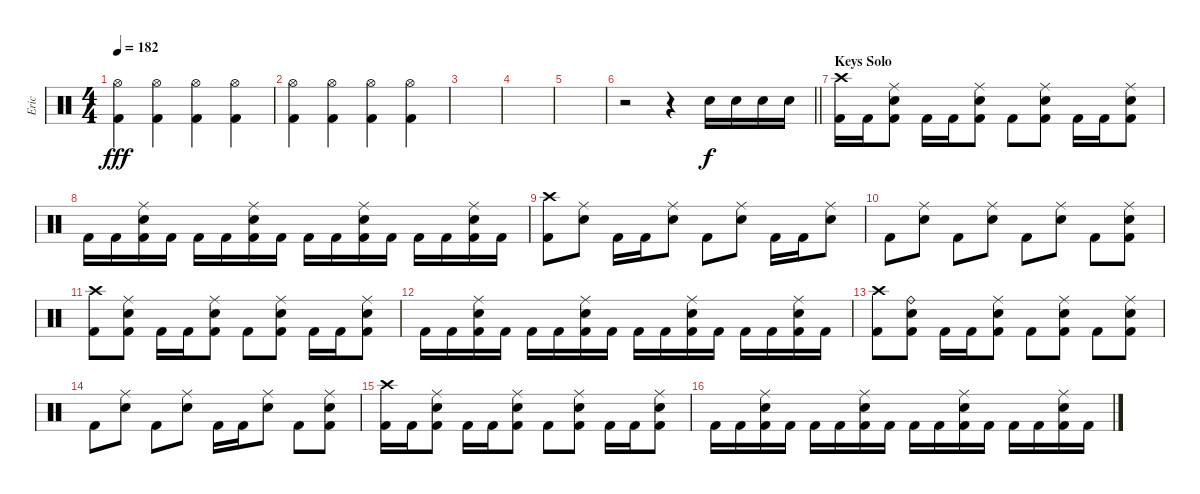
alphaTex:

\track ("Eric" "Eric") {instrument percussion}
\staff {score}
\articulation defaults
\ts (4 4)
\tempo 182
\clef neutral
\ks c
("Hi-Hat (open)" "Kick (hit) 2").4{dy fff} ("Hi-Hat (open)" "Kick (hit) 2").4 ("Hi-Hat (open)" "Kick (hit) 2").4 ("Hi-Hat (open)" "Kick (hit) 2").4 |
("Hi-Hat (open)" "Kick (hit) 2").4 ("Hi-Hat (open)" "Kick (hit) 2").4 ("Hi-Hat (open)" "Kick (hit) 2").4 ("Hi-Hat (open)" "Kick (hit) 2").4 |
|
|
|
\barLineRight lightlight
r.2 r.4 "Snare (hit) 2".16{dy f} "Snare (hit) 2".16 "Snare (hit) 2".16 "Snare (hit) 2".16 |
\section ("" "Keys Solo")
("Crash high (hit)" "Kick (hit) 2").16 "Kick (hit) 2".16 ("Ride (middle)" "Snare (hit) 2" "Kick (hit) 2").8 "Kick (hit) 2".16 "Kick (hit) 2".16 ("Ride (middle)" "Snare (hit) 2" "Kick (hit) 2").8 "Kick (hit) 2".8 ("Ride (middle)" "Snare (hit) 2" "Kick (hit) 2").8 "Kick (hit) 2".16 "Kick (hit) 2".16 ("Ride (middle)" "Snare (hit) 2" "Kick (hit) 2").8 |
"Kick (hit) 2".16 "Kick (hit) 2".16 ("Ride (middle)" "Snare (hit) 2" "Kick (hit) 2").16 "Kick (hit) 2".16 "Kick (hit) 2".16 "Kick (hit) 2".16 ("Ride (middle)" "Snare (hit) 2" "Kick (hit) 2").16 "Kick (hit) 2".16 "Kick (hit) 2".16 "Kick (hit) 2".16 ("Ride (middle)" "Snare (hit) 2" "Kick (hit) 2").16 "Kick (hit) 2".16 "Kick (hit) 2".16 "Kick (hit) 2".16 ("Ride (middle)" "Snare (hit) 2" "Kick (hit) 2").16 "Kick (hit) 2".16 |
("Crash high (hit)" "Kick (hit) 2").8 ("Ride (middle)" "Snare (hit) 2").8 "Kick (hit) 2".16 "Kick (hit) 2".16 ("Ride (middle)" "Snare (hit) 2").8 "Kick (hit) 2".8 ("Ride (middle)" "Snare (hit) 2").8 "Kick (hit) 2".16 "Kick (hit) 2".16 ("Ride (middle)" "Snare (hit) 2").8 |
"Kick (hit) 2".8 ("Ride (middle)" "Snare (hit) 2").8 "Kick (hit) 2".8 ("Ride (middle)" "Snare (hit) 2").8 "Kick (hit) 2".8 ("Ride (middle)" "Snare (hit) 2").8 "Kick (hit) 2".8 ("Ride (middle)" "Snare (hit) 2" "Kick (hit) 2").8 |
("Crash high (hit)" "Kick (hit) 2").8 ("Ride (middle)" "Snare (hit) 2" "Kick (hit) 2").8 "Kick (hit) 2".16 "Kick (hit) 2".16 ("Ride (middle)" "Snare (hit) 2" "Kick (hit) 2").8 "Kick (hit) 2".8 ("Ride (middle)" "Snare (hit) 2" "Kick (hit) 2").8 "Kick (hit) 2".16 "Kick (hit) 2".16 ("Ride (middle)" "Snare (hit) 2" "Kick (hit) 2").8 |
"Kick (hit) 2".16 "Kick (hit) 2".16 ("Ride (middle)" "Snare (hit) 2" "Kick (hit) 2").16 "Kick (hit) 2".16 "Kick (hit) 2".16 "Kick (hit) 2".16 ("Ride (middle)" "Snare (hit) 2" "Kick (hit) 2").16 "Kick (hit) 2".16 "Kick (hit) 2".16 "Kick (hit) 2".16 ("Ride (middle)" "Snare (hit) 2" "Kick (hit) 2").16 "Kick (hit) 2".16 "Kick (hit) 2".16 "Kick (hit) 2".16 ("Ride (middle)" "Snare (hit) 2" "Kick (hit) 2").16 "Kick (hit) 2".16 |
("Crash high (hit)" "Kick (hit) 2").8 ("Ride (bell)" "Snare (hit) 2" "Kick (hit) 2").8 "Kick (hit) 2".16 "Kick (hit) 2".16 ("Ride (middle)" "Snare (hit) 2" "Kick (hit) 2").8 "Kick (hit) 2".8 ("Ride (middle)" "Snare (hit) 2" "Kick (hit) 2").8 "Kick (hit) 2".8 ("Ride (middle)" "Snare (hit) 2" "Kick (hit) 2").8 |
"Kick (hit) 2".8 ("Ride (middle)" "Snare (hit) 2").8 "Kick (hit) 2".8 ("Ride (middle)" "Snare (hit) 2").8 "Kick (hit) 2".16 "Kick (hit) 2".16 ("Ride (middle)" "Snare (hit) 2").8 "Kick (hit) 2".8 ("Ride (middle)" "Snare (hit) 2" "Kick (hit) 2").8 |
("Crash high (hit)" "Kick (hit) 2").16 "Kick (hit) 2".16 ("Ride (middle)" "Snare (hit) 2" "Kick (hit) 2").8 "Kick (hit) 2".16 "Kick (hit) 2".16 ("Ride (middle)" "Snare (hit) 2" "Kick (hit) 2").8 "Kick (hit) 2".8 ("Ride (middle)" "Snare (hit) 2" "Kick (hit) 2").8 "Kick (hit) 2".16 "Kick (hit) 2".16 ("Ride (middle)" "Snare (hit) 2" "Kick (hit) 2").8 |
"Kick (hit) 2".16 "Kick (hit) 2".16 ("Ride (middle)" "Snare (hit) 2" "Kick (hit) 2").16 "Kick (hit) 2".16 "Kick (hit) 2".16 "Kick (hit) 2".16 ("Ride (middle)" "Snare (hit) 2" "Kick (hit) 2").16 "Kick (hit) 2".16 "Kick (hit) 2".16 "Kick (hit) 2".16 ("Ride (middle)" "Snare (hit) 2" "Kick (hit) 2").16 "Kick (hit) 2".16 "Kick (hit) 2".16 "Kick (hit) 2".16 ("Ride (middle)" "Snare (hit) 2" "Kick (hit) 2").16 "Kick (hit) 2".16
